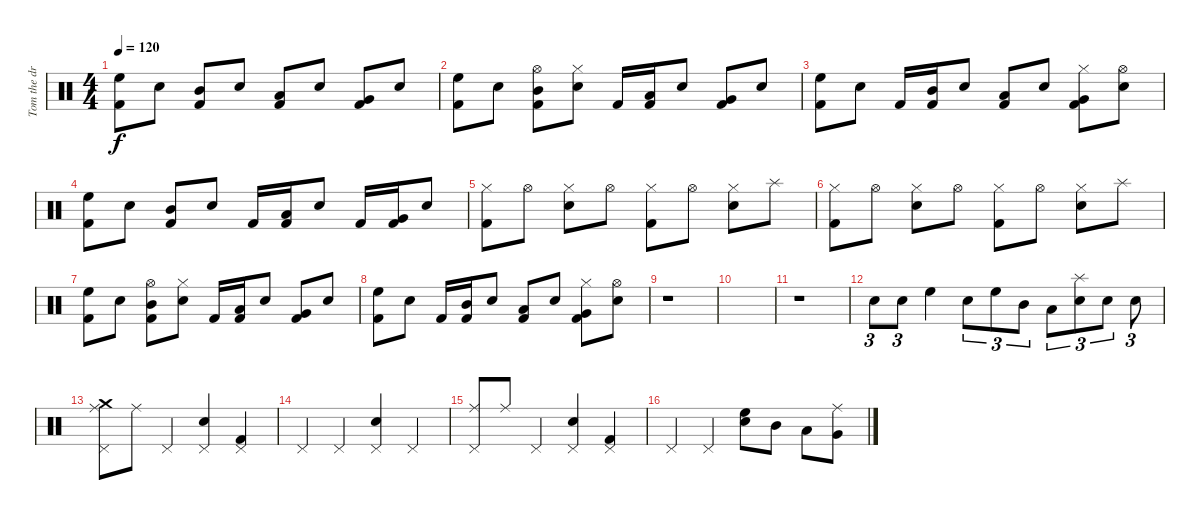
\track ("Tom the drummer" "Tom the dr") {instrument percussion}
\staff {score}
\articulation defaults
\ts (4 4)
\tempo 120
\clef neutral
\ks c
("High Floor Tom (hit)" "Kick (hit) 2").8{dy f} "Snare (hit) 2".8 ("Mid Tom (hit)" "Kick (hit) 2").8 "Snare (hit) 2".8 ("Low Tom (hit)" "Kick (hit) 2").8 "Snare (hit) 2".8 ("Very Low Tom (hit)" "Kick (hit) 2").8 "Snare (hit) 2".8 |
("High Floor Tom (hit)" "Kick (hit) 2").8 "Snare (hit) 2".8 ("Hi-Hat (open)" "Mid Tom (hit)" "Kick (hit) 2").8 ("Hi-Hat (closed)" "Snare (hit) 2").8 "Kick (hit) 2".16 ("Low Tom (hit)" "Kick (hit) 2").16 "Snare (hit) 2".8 ("Very Low Tom (hit)" "Kick (hit) 2").8 "Snare (hit) 2".8 |
("High Floor Tom (hit)" "Kick (hit) 2").8 "Snare (hit) 2".8 "Kick (hit) 2".16 ("Mid Tom (hit)" "Kick (hit) 2").16 "Snare (hit) 2".8 ("Low Tom (hit)" "Kick (hit) 2").8 "Snare (hit) 2".8 ("Hi-Hat (closed)" "Very Low Tom (hit)" "Kick (hit) 2").8 ("Hi-Hat (open)" "Snare (hit) 2").8 |
("High Floor Tom (hit)" "Kick (hit) 2").8 "Snare (hit) 2".8 ("Mid Tom (hit)" "Kick (hit) 2").8 "Snare (hit) 2".8 "Kick (hit) 2".16 ("Low Tom (hit)" "Kick (hit) 2").16 "Snare (hit) 2".8 "Kick (hit) 2".16 ("Very Low Tom (hit)" "Kick (hit) 2").16 "Snare (hit) 2".8 |
("Hi-Hat (closed)" "Kick (hit) 2").8 "Hi-Hat (open)".8 ("Hi-Hat (closed)" "Snare (hit) 2").8 "Hi-Hat (open)".8 ("Hi-Hat (closed)" "Kick (hit) 2").8 "Hi-Hat (open)".8 ("Hi-Hat (closed)" "Snare (hit) 2").8 "Splash (hit)".8 |
("Hi-Hat (closed)" "Kick (hit) 2").8 "Hi-Hat (open)".8 ("Hi-Hat (closed)" "Snare (hit) 2").8 "Hi-Hat (open)".8 ("Hi-Hat (closed)" "Kick (hit) 2").8 "Hi-Hat (open)".8 ("Hi-Hat (closed)" "Snare (hit) 2").8 "Splash (hit)".8 |
("High Floor Tom (hit)" "Kick (hit) 2").8{volume 0} "Snare (hit) 2".8 ("Hi-Hat (open)" "Mid Tom (hit)" "Kick (hit) 2").8 ("Hi-Hat (closed)" "Snare (hit) 2").8 "Kick (hit) 2".16 ("Low Tom (hit)" "Kick (hit) 2").16 "Snare (hit) 2".8 ("Very Low Tom (hit)" "Kick (hit) 2").8 "Snare (hit) 2".8 |
("High Floor Tom (hit)" "Kick (hit) 2").8 "Snare (hit) 2".8 "Kick (hit) 2".16 ("Mid Tom (hit)" "Kick (hit) 2").16 "Snare (hit) 2".8 ("Low Tom (hit)" "Kick (hit) 2").8 "Snare (hit) 2".8 ("Hi-Hat (closed)" "Very Low Tom (hit)" "Kick (hit) 2").8 ("Hi-Hat (open)" "Snare (hit) 2").8 |
r.1 |
|
r.1 |
"Snare (hit) 2".8{tu (3 2) volume 14} "Snare (hit) 2".8{tu (3 2)} "High Floor Tom (hit)".4 "Snare (hit) 2".8{tu (3 2)} "High Floor Tom (hit)".8{tu (3 2)} "Mid Tom (hit)".8{tu (3 2)} "Low Tom (hit)".8{tu (3 2)} ("Splash (hit)" "Snare (hit) 2").8{tu (3 2)} "Snare (hit) 2".8{tu (3 2)} "Snare (hit) 2".8{tu (3 2)} |
("Pedal Hi-Hat (hit)" "Ride (middle)" "Crash medium (hit)").8 "Ride (middle)".8 "Pedal Hi-Hat (hit)".4 ("Pedal Hi-Hat (hit)" "Snare (hit) 2").4 ("Pedal Hi-Hat (hit)" "Kick (hit) 2").4 |
"Pedal Hi-Hat (hit)".4 "Pedal Hi-Hat (hit)".4 ("Pedal Hi-Hat (hit)" "Snare (hit) 2").4 "Pedal Hi-Hat (hit)".4 |
("Pedal Hi-Hat (hit)" "Ride (middle)").8 "Ride (middle)".8 "Pedal Hi-Hat (hit)".4 ("Pedal Hi-Hat (hit)" "Snare (hit) 2").4 ("Pedal Hi-Hat (hit)" "Kick (hit) 2").4 |
"Pedal Hi-Hat (hit)".4 "Pedal Hi-Hat (hit)".4 ("High Floor Tom (hit)" "Snare (hit) 2").8 "Mid Tom (hit)".8 "Low Tom (hit)".8 ("Very Low Tom (hit)" "Ride (middle)").8
